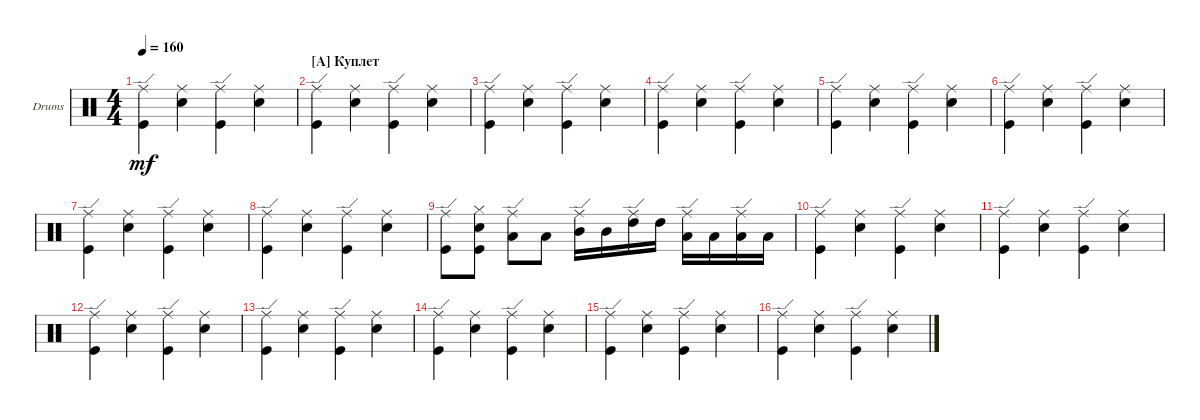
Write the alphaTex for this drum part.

\defaultSystemsLayout 4
\bracketExtendMode groupsimilarinstruments
\firstSystemTrackNameOrientation horizontal
\otherSystemsTrackNameOrientation horizontal
\track ("Drumkit" "Drums") {instrument percussion}
\staff {score}
\articulation defaults
\ts (4 4)
\tempo 160
\clef neutral
\ks c
("Kick (hit)" "Ride (edge)").4{dy mf} ("Snare (hit) 2" "Ride (middle)").4 ("Kick (hit)" "Ride (edge)").4 ("Snare (hit) 2" "Ride (middle)").4 |
\section ("A" "Куплет")
("Kick (hit)" "Ride (edge)").4 ("Snare (hit) 2" "Ride (middle)").4 ("Kick (hit)" "Ride (edge)").4 ("Snare (hit) 2" "Ride (middle)").4 |
("Kick (hit)" "Ride (edge)").4 ("Snare (hit) 2" "Ride (middle)").4 ("Kick (hit)" "Ride (edge)").4 ("Snare (hit) 2" "Ride (middle)").4 |
("Kick (hit)" "Ride (edge)").4 ("Snare (hit) 2" "Ride (middle)").4 ("Kick (hit)" "Ride (edge)").4 ("Snare (hit) 2" "Ride (middle)").4 |
("Kick (hit)" "Ride (edge)").4 ("Snare (hit) 2" "Ride (middle)").4 ("Kick (hit)" "Ride (edge)").4 ("Snare (hit) 2" "Ride (middle)").4 |
("Kick (hit)" "Ride (edge)").4 ("Snare (hit) 2" "Ride (middle)").4 ("Kick (hit)" "Ride (edge)").4 ("Snare (hit) 2" "Ride (middle)").4 |
("Kick (hit)" "Ride (edge)").4 ("Snare (hit) 2" "Ride (middle)").4 ("Kick (hit)" "Ride (edge)").4 ("Snare (hit) 2" "Ride (middle)").4 |
("Kick (hit)" "Ride (edge)").4 ("Snare (hit) 2" "Ride (middle)").4 ("Kick (hit)" "Ride (edge)").4 ("Snare (hit) 2" "Ride (middle)").4 |
("Kick (hit)" "Ride (edge)").8 ("Kick (hit)" "Snare (hit) 2" "Hi-Hat (closed)").8 ("Low Tom (hit)" "Ride (edge)").8 "Low Tom (hit)".8 ("Mid Tom (hit)" "Ride (edge)").16 "Mid Tom (hit)".16 ("High Tom (hit)" "Ride (edge)").16 "High Tom (hit)".16 ("Low Tom (hit)" "Ride (edge)").16 "Low Tom (hit)".16 ("Low Tom (hit)" "Ride (edge)").16 "Low Tom (hit)".16 |
("Kick (hit)" "Ride (edge)").4 ("Snare (hit) 2" "Ride (middle)").4 ("Kick (hit)" "Ride (edge)").4 ("Snare (hit) 2" "Ride (middle)").4 |
("Kick (hit)" "Ride (edge)").4 ("Snare (hit) 2" "Ride (middle)").4 ("Kick (hit)" "Ride (edge)").4 ("Snare (hit) 2" "Ride (middle)").4 |
("Kick (hit)" "Ride (edge)").4 ("Snare (hit) 2" "Ride (middle)").4 ("Kick (hit)" "Ride (edge)").4 ("Snare (hit) 2" "Ride (middle)").4 |
("Kick (hit)" "Ride (edge)").4 ("Snare (hit) 2" "Ride (middle)").4 ("Kick (hit)" "Ride (edge)").4 ("Snare (hit) 2" "Ride (middle)").4 |
("Kick (hit)" "Ride (edge)").4 ("Snare (hit) 2" "Ride (middle)").4 ("Kick (hit)" "Ride (edge)").4 ("Snare (hit) 2" "Ride (middle)").4 |
("Kick (hit)" "Ride (edge)").4 ("Snare (hit) 2" "Ride (middle)").4 ("Kick (hit)" "Ride (edge)").4 ("Snare (hit) 2" "Ride (middle)").4 |
("Kick (hit)" "Ride (edge)").4 ("Snare (hit) 2" "Ride (middle)").4 ("Kick (hit)" "Ride (edge)").4 ("Snare (hit) 2" "Ride (middle)").4
